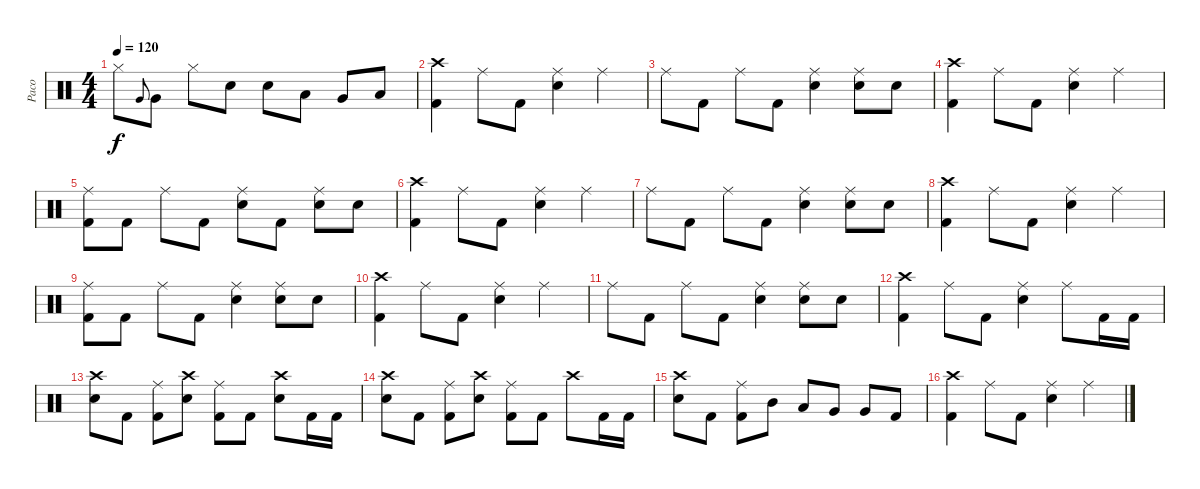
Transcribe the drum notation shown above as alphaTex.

\track ("Paco" "Paco") {instrument percussion}
\staff {score}
\articulation defaults
\ts (4 4)
\tempo 120
\clef neutral
\ks c "Hi-Hat (closed)".8{dy f} "Very Low Tom (hit)".8{gr onbeat} "Very Low Tom (hit)".8 "Hi-Hat (closed)".8 "Electric Snare (hit)".8 "Electric Snare (hit)".8 "Low Tom (hit)".8 "Very Low Tom (hit)".8 "Low Floor Tom (hit)".8
|
("Crash high (hit)" "Kick (hit) 2").4 "Ride (middle)".8 "Kick (hit) 2".8 ("Ride (middle)" "Electric Snare (hit)").4 "Ride (middle)".4 |
"Ride (middle)".8 "Kick (hit) 2".8 "Ride (middle)".8 "Kick (hit) 2".8 ("Ride (middle)" "Electric Snare (hit)").4 ("Ride (middle)" "Electric Snare (hit)").8 "Electric Snare (hit)".8 |
("Crash high (hit)" "Kick (hit) 2").4 "Ride (middle)".8 "Kick (hit) 2".8 ("Ride (middle)" "Electric Snare (hit)").4 "Ride (middle)".4 |
("Ride (middle)" "Kick (hit) 2").8 "Kick (hit) 2".8 "Ride (middle)".8 "Kick (hit) 2".8 ("Ride (middle)" "Electric Snare (hit)").8 "Kick (hit) 2".8 ("Ride (middle)" "Electric Snare (hit)").8 "Electric Snare (hit)".8 |
("Crash high (hit)" "Kick (hit) 2").4 "Ride (middle)".8 "Kick (hit) 2".8 ("Ride (middle)" "Electric Snare (hit)").4 "Ride (middle)".4 |
"Ride (middle)".8 "Kick (hit) 2".8 "Ride (middle)".8 "Kick (hit) 2".8 ("Ride (middle)" "Electric Snare (hit)").4 ("Ride (middle)" "Electric Snare (hit)").8 "Electric Snare (hit)".8 |
("Crash high (hit)" "Kick (hit) 2").4 "Ride (middle)".8 "Kick (hit) 2".8 ("Ride (middle)" "Electric Snare (hit)").4 "Ride (middle)".4 |
("Ride (middle)" "Kick (hit) 2").8 "Kick (hit) 2".8 "Ride (middle)".8 "Kick (hit) 2".8 ("Ride (middle)" "Electric Snare (hit)").4 ("Ride (middle)" "Electric Snare (hit)").8 "Electric Snare (hit)".8 |
("Crash high (hit)" "Kick (hit) 2").4 "Ride (middle)".8 "Kick (hit) 2".8 ("Ride (middle)" "Electric Snare (hit)").4 "Ride (middle)".4 |
"Ride (middle)".8 "Kick (hit) 2".8 "Ride (middle)".8 "Kick (hit) 2".8 ("Ride (middle)" "Electric Snare (hit)").4 ("Ride (middle)" "Electric Snare (hit)").8 "Electric Snare (hit)".8 |
("Crash high (hit)" "Kick (hit) 2").4 "Ride (middle)".8 "Kick (hit) 2".8 ("Ride (middle)" "Electric Snare (hit)").4 "Ride (middle)".8 "Kick (hit) 2".16 "Kick (hit) 2".16 |
("Crash high (hit)" "Electric Snare (hit)").8 "Kick (hit) 2".8 ("Ride (middle)" "Kick (hit) 2").8 ("Crash high (hit)" "Electric Snare (hit)").8 ("Ride (middle)" "Kick (hit) 2").8 "Kick (hit) 2".8 ("Crash high (hit)" "Electric Snare (hit)").8 "Kick (hit) 2".16 "Kick (hit) 2".16 |
("Crash high (hit)" "Electric Snare (hit)").8 "Kick (hit) 2".8 ("Ride (middle)" "Kick (hit) 2").8 ("Crash high (hit)" "Electric Snare (hit)").8 ("Ride (middle)" "Kick (hit) 2").8 "Kick (hit) 2".8 "Crash high (hit)".8 "Kick (hit) 2".16 "Kick (hit) 2".16 |
("Crash high (hit)" "Electric Snare (hit)").8 "Kick (hit) 2".8 ("Ride (middle)" "Kick (hit) 2").8 "Mid Tom (hit)".8 "Low Tom (hit)".8 "Very Low Tom (hit)".8 "Very Low Tom (hit)".8 "Kick (hit) 2".8 |
("Crash high (hit)" "Kick (hit) 2").4 "Ride (middle)".8 "Kick (hit) 2".8 ("Ride (middle)" "Electric Snare (hit)").4 "Ride (middle)".4
